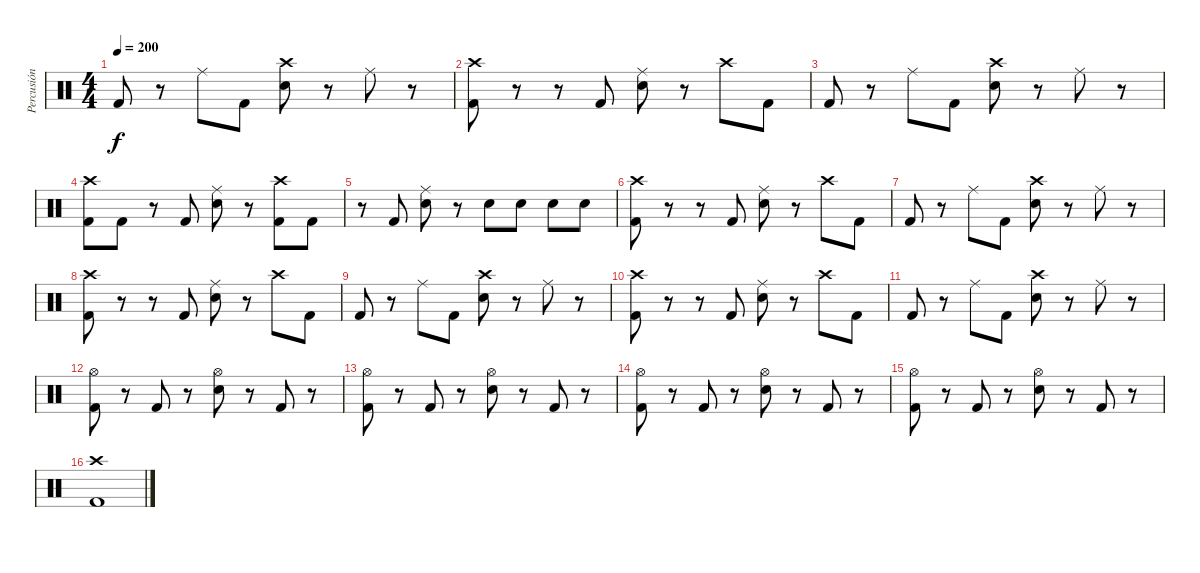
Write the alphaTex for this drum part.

\track ("Percusión" "Percusión") {instrument percussion}
\staff {score}
\articulation defaults
\ts (4 4)
\tempo 200
\clef neutral
\ks c "Kick (hit) 2".8{dy f}
r.8 "Ride (middle)".8 "Kick (hit) 2".8 ("Crash high (hit)" "Electric Snare (hit)").8 r.8 "Ride (middle)".8 r.8 |
("Crash high (hit)" "Kick (hit) 2").8 r.8 r.8 "Kick (hit) 2".8 ("Ride (middle)" "Electric Snare (hit)").8 r.8 "Crash high (hit)".8 "Kick (hit) 2".8 |
"Kick (hit) 2".8 r.8 "Ride (middle)".8 "Kick (hit) 2".8 ("Crash high (hit)" "Electric Snare (hit)").8 r.8 "Ride (middle)".8 r.8 |
("Crash high (hit)" "Kick (hit) 2").8 "Kick (hit) 2".8 r.8 "Kick (hit) 2".8 ("Ride (middle)" "Electric Snare (hit)").8 r.8 ("Crash high (hit)" "Kick (hit) 2").8 "Kick (hit) 2".8 |
r.8 "Kick (hit) 2".8 ("Ride (middle)" "Electric Snare (hit)").8 r.8 "Electric Snare (hit)".8 "Electric Snare (hit)".8 "Electric Snare (hit)".8 "Electric Snare (hit)".8 |
("Crash high (hit)" "Kick (hit) 2").8 r.8 r.8 "Kick (hit) 2".8 ("Ride (middle)" "Electric Snare (hit)").8 r.8 "Crash high (hit)".8 "Kick (hit) 2".8 |
"Kick (hit) 2".8 r.8 "Ride (middle)".8 "Kick (hit) 2".8 ("Crash high (hit)" "Electric Snare (hit)").8 r.8 "Ride (middle)".8 r.8 |
("Crash high (hit)" "Kick (hit) 2").8 r.8 r.8 "Kick (hit) 2".8 ("Ride (middle)" "Electric Snare (hit)").8 r.8 "Crash high (hit)".8 "Kick (hit) 2".8 |
"Kick (hit) 2".8 r.8 "Ride (middle)".8 "Kick (hit) 2".8 ("Crash high (hit)" "Electric Snare (hit)").8 r.8 "Ride (middle)".8 r.8 |
("Crash high (hit)" "Kick (hit) 2").8 r.8 r.8 "Kick (hit) 2".8 ("Ride (middle)" "Electric Snare (hit)").8 r.8 "Crash high (hit)".8 "Kick (hit) 2".8 |
"Kick (hit) 2".8 r.8 "Ride (middle)".8 "Kick (hit) 2".8 ("Crash high (hit)" "Electric Snare (hit)").8 r.8 "Ride (middle)".8 r.8 |
("Hi-Hat (open)" "Kick (hit) 2").8 r.8 "Kick (hit) 2".8 r.8 ("Hi-Hat (open)" "Electric Snare (hit)").8 r.8 "Kick (hit) 2".8 r.8 |
("Hi-Hat (open)" "Kick (hit) 2").8 r.8 "Kick (hit) 2".8 r.8 ("Hi-Hat (open)" "Electric Snare (hit)").8 r.8 "Kick (hit) 2".8 r.8 |
("Hi-Hat (open)" "Kick (hit) 2").8 r.8 "Kick (hit) 2".8 r.8 ("Hi-Hat (open)" "Electric Snare (hit)").8 r.8 "Kick (hit) 2".8 r.8 |
("Hi-Hat (open)" "Kick (hit) 2").8 r.8 "Kick (hit) 2".8 r.8 ("Hi-Hat (open)" "Electric Snare (hit)").8 r.8 "Kick (hit) 2".8 r.8 |
("Crash high (hit)" "Kick (hit) 2").1
